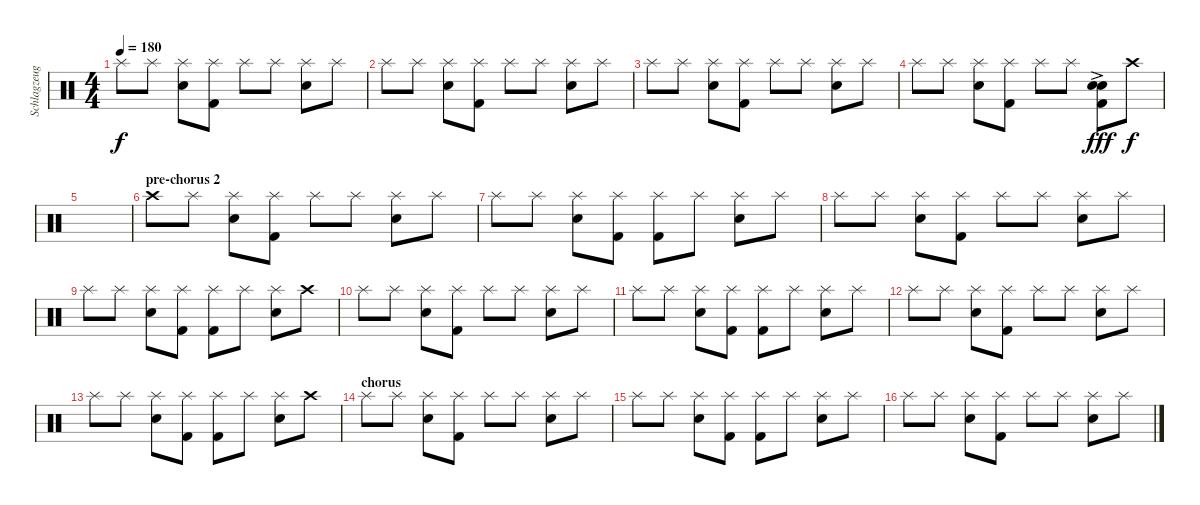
\track ("Schlagzeug" "Schlagzeug") {instrument percussion}
\staff {score}
\articulation defaults
\ts (4 4)
\tempo 180
\clef neutral
\ks c "Splash (hit)".8{dy f} "Splash (hit)".8
("Splash (hit)" "Electric Snare (hit)").8 ("Splash (hit)" "Kick (hit) 2").8 "Splash (hit)".8 "Splash (hit)".8 ("Splash (hit)" "Electric Snare (hit)").8 "Splash (hit)".8 |
"Splash (hit)".8 "Splash (hit)".8 ("Splash (hit)" "Electric Snare (hit)").8 ("Splash (hit)" "Kick (hit) 2").8 "Splash (hit)".8 "Splash (hit)".8 ("Splash (hit)" "Electric Snare (hit)").8 "Splash (hit)".8 |
"Splash (hit)".8 "Splash (hit)".8 ("Splash (hit)" "Electric Snare (hit)").8 ("Splash (hit)" "Kick (hit) 2").8 "Splash (hit)".8 "Splash (hit)".8 ("Splash (hit)" "Electric Snare (hit)").8 "Splash (hit)".8 |
"Splash (hit)".8 "Splash (hit)".8 ("Splash (hit)" "Electric Snare (hit)").8 ("Splash (hit)" "Kick (hit) 2").8 "Splash (hit)".8 "Splash (hit)".8 ("Hand Clap (hit)"{ac} "Electric Snare (hit)" "Kick (hit) 2").8{dy fff} "Crash high (hit)".8{dy f} |
|
\section ("" "pre-chorus 2")
"Crash high (hit)".8 "Splash (hit)".8 ("Splash (hit)" "Electric Snare (hit)").8 ("Splash (hit)" "Kick (hit) 2").8 "Splash (hit)".8 "Splash (hit)".8 ("Splash (hit)" "Electric Snare (hit)").8 "Splash (hit)".8 |
"Splash (hit)".8 "Splash (hit)".8 ("Splash (hit)" "Electric Snare (hit)").8 ("Splash (hit)" "Kick (hit) 2").8 ("Splash (hit)" "Kick (hit) 2").8 "Splash (hit)".8 ("Splash (hit)" "Electric Snare (hit)").8 "Splash (hit)".8 |
"Splash (hit)".8 "Splash (hit)".8 ("Splash (hit)" "Electric Snare (hit)").8 ("Splash (hit)" "Kick (hit) 2").8 "Splash (hit)".8 "Splash (hit)".8 ("Splash (hit)" "Electric Snare (hit)").8 "Splash (hit)".8 |
"Splash (hit)".8 "Splash (hit)".8 ("Splash (hit)" "Electric Snare (hit)").8 ("Splash (hit)" "Kick (hit) 2").8 ("Splash (hit)" "Kick (hit) 2").8 "Splash (hit)".8 ("Splash (hit)" "Electric Snare (hit)").8 "Crash high (hit)".8 |
"Splash (hit)".8 "Splash (hit)".8 ("Splash (hit)" "Electric Snare (hit)").8 ("Splash (hit)" "Kick (hit) 2").8 "Splash (hit)".8 "Splash (hit)".8 ("Splash (hit)" "Electric Snare (hit)").8 "Splash (hit)".8 |
"Splash (hit)".8 "Splash (hit)".8 ("Splash (hit)" "Electric Snare (hit)").8 ("Splash (hit)" "Kick (hit) 2").8 ("Splash (hit)" "Kick (hit) 2").8 "Splash (hit)".8 ("Splash (hit)" "Electric Snare (hit)").8 "Splash (hit)".8 |
"Splash (hit)".8 "Splash (hit)".8 ("Splash (hit)" "Electric Snare (hit)").8 ("Splash (hit)" "Kick (hit) 2").8 "Splash (hit)".8 "Splash (hit)".8 ("Splash (hit)" "Electric Snare (hit)").8 "Splash (hit)".8 |
"Splash (hit)".8 "Splash (hit)".8 ("Splash (hit)" "Electric Snare (hit)").8 ("Splash (hit)" "Kick (hit) 2").8 ("Splash (hit)" "Kick (hit) 2").8 "Splash (hit)".8 ("Splash (hit)" "Electric Snare (hit)").8 "Crash high (hit)".8 |
\section ("" "chorus")
"Splash (hit)".8 "Splash (hit)".8 ("Splash (hit)" "Electric Snare (hit)").8 ("Splash (hit)" "Kick (hit) 2").8 "Splash (hit)".8 "Splash (hit)".8 ("Splash (hit)" "Electric Snare (hit)").8 "Splash (hit)".8 |
"Splash (hit)".8 "Splash (hit)".8 ("Splash (hit)" "Electric Snare (hit)").8 ("Splash (hit)" "Kick (hit) 2").8 ("Splash (hit)" "Kick (hit) 2").8 "Splash (hit)".8 ("Splash (hit)" "Electric Snare (hit)").8 "Splash (hit)".8 |
"Splash (hit)".8 "Splash (hit)".8 ("Splash (hit)" "Electric Snare (hit)").8 ("Splash (hit)" "Kick (hit) 2").8 "Splash (hit)".8 "Splash (hit)".8 ("Splash (hit)" "Electric Snare (hit)").8 "Splash (hit)".8
